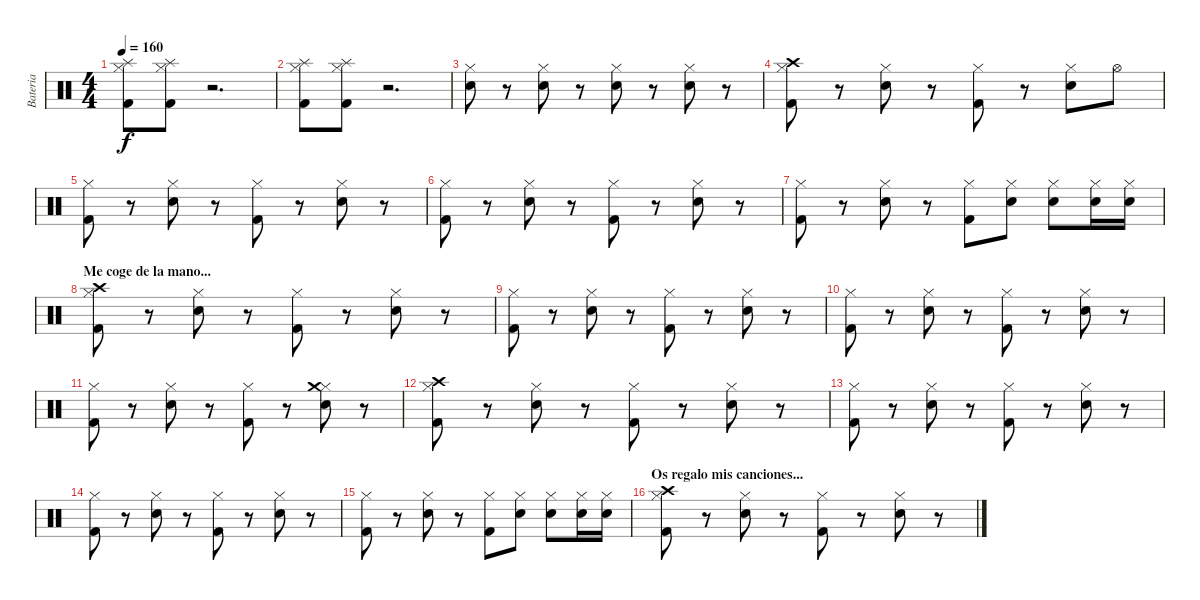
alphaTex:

\track ("Bateria" "Bateria") {instrument percussion}
\staff {score}
\articulation defaults
\ts (4 4)
\tempo 160
\clef neutral
\ks c
("Hi-Hat (closed)" "Splash (hit)" "Kick (hit) 2").8{dy f} ("Hi-Hat (closed)" "Splash (hit)" "Kick (hit) 2").8 r.2{d} |
("Hi-Hat (closed)" "Splash (hit)" "Kick (hit) 2").8 ("Hi-Hat (closed)" "Splash (hit)" "Kick (hit) 2").8 r.2{d} |
("Hi-Hat (closed)" "Snare (hit) 2").8 r.8 ("Hi-Hat (closed)" "Snare (hit) 2").8 r.8 ("Hi-Hat (closed)" "Snare (hit) 2").8 r.8 ("Hi-Hat (closed)" "Snare (hit) 2").8 r.8 |
("Hi-Hat (closed)" "Crash high (hit)" "Kick (hit) 2").8 r.8 ("Hi-Hat (closed)" "Snare (hit) 2").8 r.8 ("Hi-Hat (closed)" "Kick (hit) 2").8 r.8 ("Hi-Hat (closed)" "Snare (hit) 2").8 "Hi-Hat (open)".8 |
("Hi-Hat (closed)" "Kick (hit) 2").8 r.8 ("Hi-Hat (closed)" "Snare (hit) 2").8 r.8 ("Hi-Hat (closed)" "Kick (hit) 2").8 r.8 ("Hi-Hat (closed)" "Snare (hit) 2").8 r.8 |
("Hi-Hat (closed)" "Kick (hit) 2").8 r.8 ("Hi-Hat (closed)" "Snare (hit) 2").8 r.8 ("Hi-Hat (closed)" "Kick (hit) 2").8 r.8 ("Hi-Hat (closed)" "Snare (hit) 2").8 r.8 |
("Hi-Hat (closed)" "Kick (hit) 2").8 r.8 ("Hi-Hat (closed)" "Snare (hit) 2").8 r.8 ("Hi-Hat (closed)" "Kick (hit) 2").8 ("Hi-Hat (closed)" "Snare (hit) 2").8 ("Hi-Hat (closed)" "Snare (hit) 2").8 ("Hi-Hat (closed)" "Snare (hit) 2").16 ("Hi-Hat (closed)" "Snare (hit) 2").16 |
\section ("" "Me coge de la mano...")
("Hi-Hat (closed)" "Crash high (hit)" "Kick (hit) 2").8 r.8 ("Hi-Hat (closed)" "Snare (hit) 2").8 r.8 ("Hi-Hat (closed)" "Kick (hit) 2").8 r.8 ("Hi-Hat (closed)" "Snare (hit) 2").8 r.8 |
("Hi-Hat (closed)" "Kick (hit) 2").8 r.8 ("Hi-Hat (closed)" "Snare (hit) 2").8 r.8 ("Hi-Hat (closed)" "Kick (hit) 2").8 r.8 ("Hi-Hat (closed)" "Snare (hit) 2").8 r.8 |
("Hi-Hat (closed)" "Kick (hit) 2").8 r.8 ("Hi-Hat (closed)" "Snare (hit) 2").8 r.8 ("Hi-Hat (closed)" "Kick (hit) 2").8 r.8 ("Hi-Hat (closed)" "Snare (hit) 2").8 r.8 |
("Hi-Hat (closed)" "Kick (hit) 2").8 r.8 ("Hi-Hat (closed)" "Snare (hit) 2").8 r.8 ("Hi-Hat (closed)" "Kick (hit) 2").8 r.8 ("Hi-Hat (closed)" "Crash medium (hit)" "Snare (hit) 2").8 r.8 |
("Hi-Hat (closed)" "Crash high (hit)" "Kick (hit) 2").8 r.8 ("Hi-Hat (closed)" "Snare (hit) 2").8 r.8 ("Hi-Hat (closed)" "Kick (hit) 2").8 r.8 ("Hi-Hat (closed)" "Snare (hit) 2").8 r.8 |
("Hi-Hat (closed)" "Kick (hit) 2").8 r.8 ("Hi-Hat (closed)" "Snare (hit) 2").8 r.8 ("Hi-Hat (closed)" "Kick (hit) 2").8 r.8 ("Hi-Hat (closed)" "Snare (hit) 2").8 r.8 |
("Hi-Hat (closed)" "Kick (hit) 2").8 r.8 ("Hi-Hat (closed)" "Snare (hit) 2").8 r.8 ("Hi-Hat (closed)" "Kick (hit) 2").8 r.8 ("Hi-Hat (closed)" "Snare (hit) 2").8 r.8 |
("Hi-Hat (closed)" "Kick (hit) 2").8 r.8 ("Hi-Hat (closed)" "Snare (hit) 2").8 r.8 ("Hi-Hat (closed)" "Kick (hit) 2").8 ("Hi-Hat (closed)" "Snare (hit) 2").8 ("Hi-Hat (closed)" "Snare (hit) 2").8 ("Hi-Hat (closed)" "Snare (hit) 2").16 ("Hi-Hat (closed)" "Snare (hit) 2").16 |
\section ("" "Os regalo mis canciones...")
("Hi-Hat (closed)" "Crash high (hit)" "Kick (hit) 2").8 r.8 ("Hi-Hat (closed)" "Snare (hit) 2").8 r.8 ("Hi-Hat (closed)" "Kick (hit) 2").8 r.8 ("Hi-Hat (closed)" "Snare (hit) 2").8 r.8
